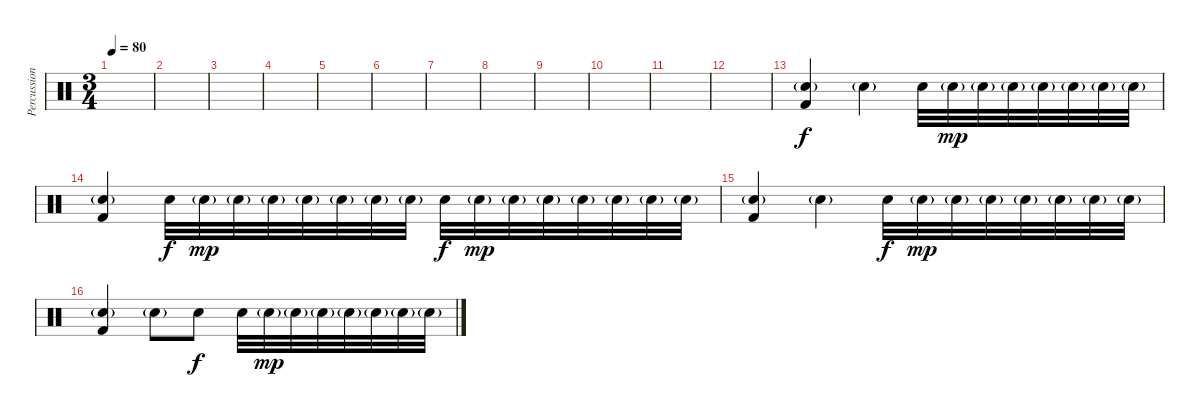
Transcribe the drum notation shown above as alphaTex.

\track ("Percussion" "Percussion") {instrument percussion}
\staff {score}
\articulation defaults
\ts (3 4)
\tempo 80
\clef neutral
\ks c
|
|
|
|
|
|
|
|
|
|
|
|
("Electric Snare (hit)"{g} "Kick (hit) 2").4 "Electric Snare (hit)"{g}.4 "Electric Snare (hit)".32{dy f} "Electric Snare (hit)"{g}.32{dy mp} "Electric Snare (hit)"{g}.32 "Electric Snare (hit)"{g}.32 "Electric Snare (hit)"{g}.32 "Electric Snare (hit)"{g}.32 "Electric Snare (hit)"{g}.32 "Electric Snare (hit)"{g}.32 |
("Electric Snare (hit)"{g} "Kick (hit) 2").4 "Electric Snare (hit)".32{dy f} "Electric Snare (hit)"{g}.32{dy mp} "Electric Snare (hit)"{g}.32 "Electric Snare (hit)"{g}.32 "Electric Snare (hit)"{g}.32 "Electric Snare (hit)"{g}.32 "Electric Snare (hit)"{g}.32 "Electric Snare (hit)"{g}.32 "Electric Snare (hit)".32{dy f} "Electric Snare (hit)"{g}.32{dy mp} "Electric Snare (hit)"{g}.32 "Electric Snare (hit)"{g}.32 "Electric Snare (hit)"{g}.32 "Electric Snare (hit)"{g}.32 "Electric Snare (hit)"{g}.32 "Electric Snare (hit)"{g}.32 |
("Electric Snare (hit)"{g} "Kick (hit) 2").4 "Electric Snare (hit)"{g}.4 "Electric Snare (hit)".32{dy f} "Electric Snare (hit)"{g}.32{dy mp} "Electric Snare (hit)"{g}.32 "Electric Snare (hit)"{g}.32 "Electric Snare (hit)"{g}.32 "Electric Snare (hit)"{g}.32 "Electric Snare (hit)"{g}.32 "Electric Snare (hit)"{g}.32 |
("Electric Snare (hit)"{g} "Kick (hit) 2").4 "Electric Snare (hit)"{g}.8 "Electric Snare (hit)".8{dy f} "Electric Snare (hit)".32 "Electric Snare (hit)"{g}.32{dy mp} "Electric Snare (hit)"{g}.32 "Electric Snare (hit)"{g}.32 "Electric Snare (hit)"{g}.32 "Electric Snare (hit)"{g}.32 "Electric Snare (hit)"{g}.32 "Electric Snare (hit)"{g}.32
